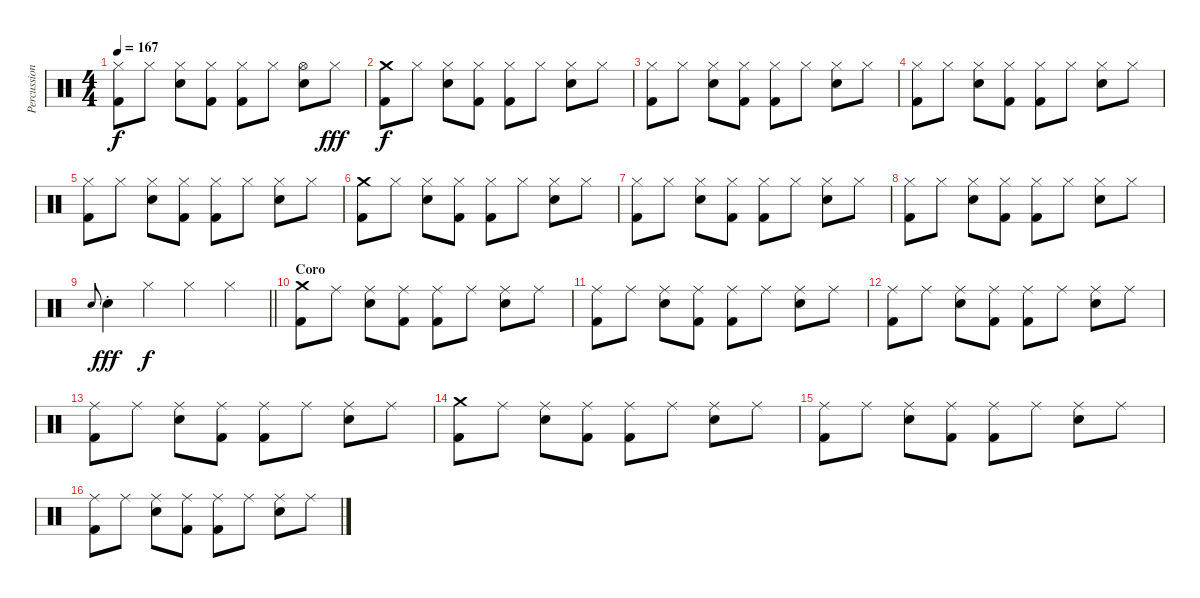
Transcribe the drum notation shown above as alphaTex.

\track ("Percussion" "Percussion") {instrument percussion}
\staff {score}
\articulation defaults
\ts (4 4)
\tempo 167
\clef neutral
\ks c
("Hi-Hat (closed)" "Kick (hit) 2").8{dy f} "Hi-Hat (closed)".8 ("Hi-Hat (closed)" "Snare (hit) 2").8 ("Hi-Hat (closed)" "Kick (hit) 2").8 ("Hi-Hat (closed)" "Kick (hit) 2").8 "Hi-Hat (closed)".8 ("Hi-Hat (open)" "Snare (hit) 2").8 "Hi-Hat (closed)".8{dy fff} |
("Crash medium (hit)" "Kick (hit) 2").8{dy f} "Hi-Hat (closed)".8 ("Hi-Hat (closed)" "Snare (hit) 2").8 ("Hi-Hat (closed)" "Kick (hit) 2").8 ("Hi-Hat (closed)" "Kick (hit) 2").8 "Hi-Hat (closed)".8 ("Hi-Hat (closed)" "Snare (hit) 2").8 "Hi-Hat (closed)".8 |
("Hi-Hat (closed)" "Kick (hit) 2").8 "Hi-Hat (closed)".8 ("Hi-Hat (closed)" "Snare (hit) 2").8 ("Hi-Hat (closed)" "Kick (hit) 2").8 ("Hi-Hat (closed)" "Kick (hit) 2").8 "Hi-Hat (closed)".8 ("Hi-Hat (closed)" "Snare (hit) 2").8 "Hi-Hat (closed)".8 |
("Hi-Hat (closed)" "Kick (hit) 2").8 "Hi-Hat (closed)".8 ("Hi-Hat (closed)" "Snare (hit) 2").8 ("Hi-Hat (closed)" "Kick (hit) 2").8 ("Hi-Hat (closed)" "Kick (hit) 2").8 "Hi-Hat (closed)".8 ("Hi-Hat (closed)" "Snare (hit) 2").8 "Hi-Hat (closed)".8 |
("Hi-Hat (closed)" "Kick (hit) 2").8 "Hi-Hat (closed)".8 ("Hi-Hat (closed)" "Snare (hit) 2").8 ("Hi-Hat (closed)" "Kick (hit) 2").8 ("Hi-Hat (closed)" "Kick (hit) 2").8 "Hi-Hat (closed)".8 ("Hi-Hat (closed)" "Snare (hit) 2").8 "Hi-Hat (closed)".8 |
("Crash medium (hit)" "Kick (hit) 2").8 "Hi-Hat (closed)".8 ("Hi-Hat (closed)" "Snare (hit) 2").8 ("Hi-Hat (closed)" "Kick (hit) 2").8 ("Hi-Hat (closed)" "Kick (hit) 2").8 "Hi-Hat (closed)".8 ("Hi-Hat (closed)" "Snare (hit) 2").8 "Hi-Hat (closed)".8 |
("Hi-Hat (closed)" "Kick (hit) 2").8 "Hi-Hat (closed)".8 ("Hi-Hat (closed)" "Snare (hit) 2").8 ("Hi-Hat (closed)" "Kick (hit) 2").8 ("Hi-Hat (closed)" "Kick (hit) 2").8 "Hi-Hat (closed)".8 ("Hi-Hat (closed)" "Snare (hit) 2").8 "Hi-Hat (closed)".8 |
("Hi-Hat (closed)" "Kick (hit) 2").8 "Hi-Hat (closed)".8 ("Hi-Hat (closed)" "Snare (hit) 2").8 ("Hi-Hat (closed)" "Kick (hit) 2").8 ("Hi-Hat (closed)" "Kick (hit) 2").8 "Hi-Hat (closed)".8 ("Hi-Hat (closed)" "Snare (hit) 2").8 "Hi-Hat (closed)".8 |
\barLineRight lightlight "Snare (hit) 2"{h}.8{gr onbeat} "Snare (hit) 2"{st}.4{dy fff} "Hi-Hat (closed)".4{dy f} "Hi-Hat (closed)".4 "Hi-Hat (closed)".4
|
\section ("" "Coro")
("Crash medium (hit)" "Kick (hit) 2").8 "Ride (middle)".8 ("Ride (middle)" "Snare (hit) 2").8 ("Ride (middle)" "Kick (hit) 2").8 ("Ride (middle)" "Kick (hit) 2").8 "Ride (middle)".8 ("Ride (middle)" "Snare (hit) 2").8 "Ride (middle)".8 |
("Ride (middle)" "Kick (hit) 2").8 "Ride (middle)".8 ("Ride (middle)" "Snare (hit) 2").8 ("Ride (middle)" "Kick (hit) 2").8 ("Ride (middle)" "Kick (hit) 2").8 "Ride (middle)".8 ("Ride (middle)" "Snare (hit) 2").8 "Ride (middle)".8 |
("Ride (middle)" "Kick (hit) 2").8 "Ride (middle)".8 ("Ride (middle)" "Snare (hit) 2").8 ("Ride (middle)" "Kick (hit) 2").8 ("Ride (middle)" "Kick (hit) 2").8 "Ride (middle)".8 ("Ride (middle)" "Snare (hit) 2").8 "Ride (middle)".8 |
("Ride (middle)" "Kick (hit) 2").8 "Ride (middle)".8 ("Ride (middle)" "Snare (hit) 2").8 ("Ride (middle)" "Kick (hit) 2").8 ("Ride (middle)" "Kick (hit) 2").8 "Ride (middle)".8 ("Ride (middle)" "Snare (hit) 2").8 "Ride (middle)".8 |
("Crash medium (hit)" "Kick (hit) 2").8 "Ride (middle)".8 ("Ride (middle)" "Snare (hit) 2").8 ("Ride (middle)" "Kick (hit) 2").8 ("Ride (middle)" "Kick (hit) 2").8 "Ride (middle)".8 ("Ride (middle)" "Snare (hit) 2").8 "Ride (middle)".8 |
("Ride (middle)" "Kick (hit) 2").8 "Ride (middle)".8 ("Ride (middle)" "Snare (hit) 2").8 ("Ride (middle)" "Kick (hit) 2").8 ("Ride (middle)" "Kick (hit) 2").8 "Ride (middle)".8 ("Ride (middle)" "Snare (hit) 2").8 "Ride (middle)".8 |
("Ride (middle)" "Kick (hit) 2").8 "Ride (middle)".8 ("Ride (middle)" "Snare (hit) 2").8 ("Ride (middle)" "Kick (hit) 2").8 ("Ride (middle)" "Kick (hit) 2").8 "Ride (middle)".8 ("Ride (middle)" "Snare (hit) 2").8 "Ride (middle)".8
